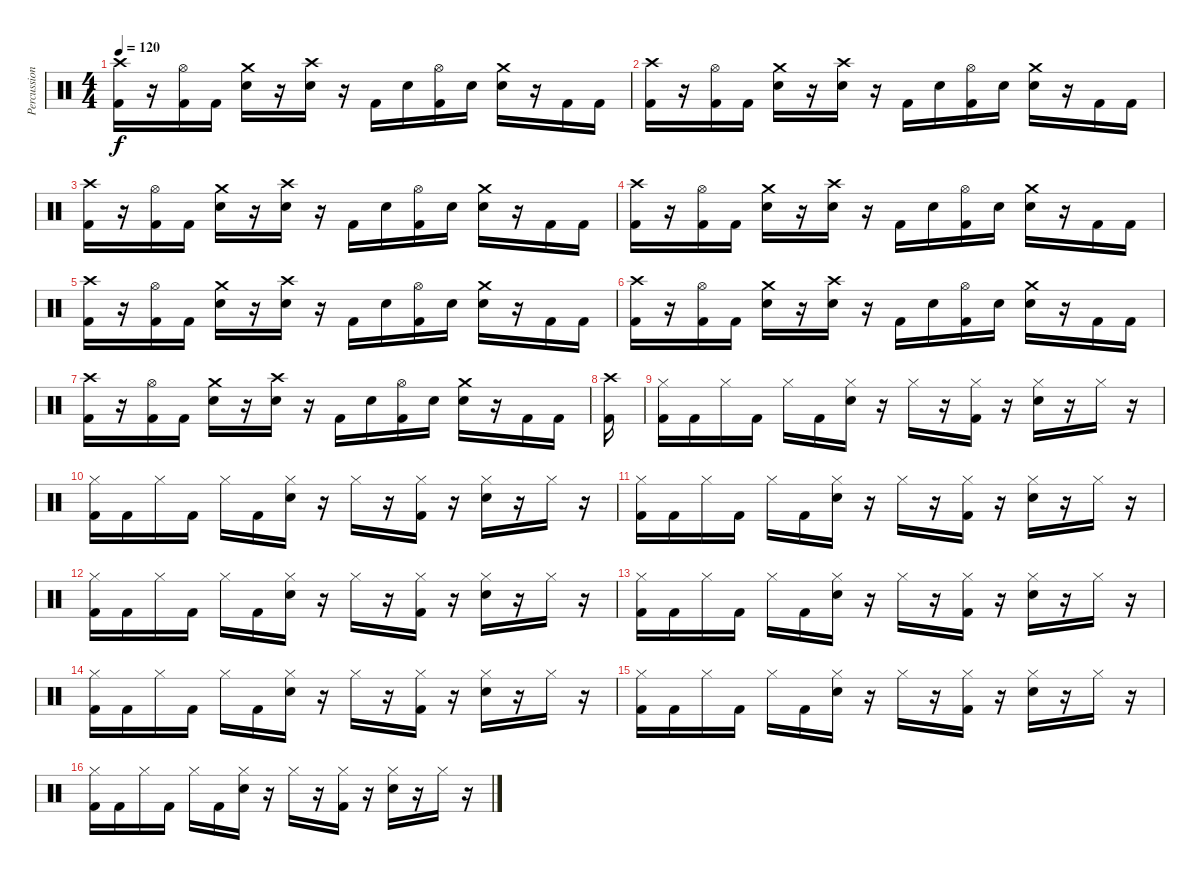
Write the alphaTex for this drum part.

\track ("Percussion" "Percussion") {instrument percussion}
\staff {score}
\articulation defaults
\ts (4 4)
\tempo 120
\clef neutral
\ks c
("Crash high (hit)" "Kick (hit) 2").16{dy f} r.16 ("Hi-Hat (open)" "Kick (hit) 2").16 "Kick (hit) 2".16 ("Crash medium (hit)" "Electric Snare (hit)").16 r.16 ("Crash high (hit)" "Electric Snare (hit)").16 r.16 "Kick (hit) 2".16 "Electric Snare (hit)".16 ("Hi-Hat (open)" "Kick (hit) 2").16 "Electric Snare (hit)".16 ("Crash medium (hit)" "Electric Snare (hit)").16 r.16 "Kick (hit) 2".16 "Kick (hit) 2".16 |
("Crash high (hit)" "Kick (hit) 2").16 r.16 ("Hi-Hat (open)" "Kick (hit) 2").16 "Kick (hit) 2".16 ("Crash medium (hit)" "Electric Snare (hit)").16 r.16 ("Crash high (hit)" "Electric Snare (hit)").16 r.16 "Kick (hit) 2".16 "Electric Snare (hit)".16 ("Hi-Hat (open)" "Kick (hit) 2").16 "Electric Snare (hit)".16 ("Crash medium (hit)" "Electric Snare (hit)").16 r.16 "Kick (hit) 2".16 "Kick (hit) 2".16 |
("Crash high (hit)" "Kick (hit) 2").16 r.16 ("Hi-Hat (open)" "Kick (hit) 2").16 "Kick (hit) 2".16 ("Crash medium (hit)" "Electric Snare (hit)").16 r.16 ("Crash high (hit)" "Electric Snare (hit)").16 r.16 "Kick (hit) 2".16 "Electric Snare (hit)".16 ("Hi-Hat (open)" "Kick (hit) 2").16 "Electric Snare (hit)".16 ("Crash medium (hit)" "Electric Snare (hit)").16 r.16 "Kick (hit) 2".16 "Kick (hit) 2".16 |
("Crash high (hit)" "Kick (hit) 2").16 r.16 ("Hi-Hat (open)" "Kick (hit) 2").16 "Kick (hit) 2".16 ("Crash medium (hit)" "Electric Snare (hit)").16 r.16 ("Crash high (hit)" "Electric Snare (hit)").16 r.16 "Kick (hit) 2".16 "Electric Snare (hit)".16 ("Hi-Hat (open)" "Kick (hit) 2").16 "Electric Snare (hit)".16 ("Crash medium (hit)" "Electric Snare (hit)").16 r.16 "Kick (hit) 2".16 "Kick (hit) 2".16 |
("Crash high (hit)" "Kick (hit) 2").16 r.16 ("Hi-Hat (open)" "Kick (hit) 2").16 "Kick (hit) 2".16 ("Crash medium (hit)" "Electric Snare (hit)").16 r.16 ("Crash high (hit)" "Electric Snare (hit)").16 r.16 "Kick (hit) 2".16 "Electric Snare (hit)".16 ("Hi-Hat (open)" "Kick (hit) 2").16 "Electric Snare (hit)".16 ("Crash medium (hit)" "Electric Snare (hit)").16 r.16 "Kick (hit) 2".16 "Kick (hit) 2".16 |
("Crash high (hit)" "Kick (hit) 2").16 r.16 ("Hi-Hat (open)" "Kick (hit) 2").16 "Kick (hit) 2".16 ("Crash medium (hit)" "Electric Snare (hit)").16 r.16 ("Crash high (hit)" "Electric Snare (hit)").16 r.16 "Kick (hit) 2".16 "Electric Snare (hit)".16 ("Hi-Hat (open)" "Kick (hit) 2").16 "Electric Snare (hit)".16 ("Crash medium (hit)" "Electric Snare (hit)").16 r.16 "Kick (hit) 2".16 "Kick (hit) 2".16 |
("Crash high (hit)" "Kick (hit) 2").16 r.16 ("Hi-Hat (open)" "Kick (hit) 2").16 "Kick (hit) 2".16 ("Crash medium (hit)" "Electric Snare (hit)").16 r.16 ("Crash high (hit)" "Electric Snare (hit)").16 r.16 "Kick (hit) 2".16 "Electric Snare (hit)".16 ("Hi-Hat (open)" "Kick (hit) 2").16 "Electric Snare (hit)".16 ("Crash medium (hit)" "Electric Snare (hit)").16 r.16 "Kick (hit) 2".16 "Kick (hit) 2".16 |
("Crash high (hit)" "Kick (hit) 2").16 |
("Hi-Hat (closed)" "Kick (hit) 2").16 "Kick (hit) 2".16 "Hi-Hat (closed)".16 "Kick (hit) 2".16 "Hi-Hat (closed)".16 "Kick (hit) 2".16 ("Hi-Hat (closed)" "Electric Snare (hit)").16 r.16 "Hi-Hat (closed)".16 r.16 ("Hi-Hat (closed)" "Kick (hit) 2").16 r.16 ("Hi-Hat (closed)" "Electric Snare (hit)").16 r.16 "Hi-Hat (closed)".16 r.16 |
("Hi-Hat (closed)" "Kick (hit) 2").16 "Kick (hit) 2".16 "Hi-Hat (closed)".16 "Kick (hit) 2".16 "Hi-Hat (closed)".16 "Kick (hit) 2".16 ("Hi-Hat (closed)" "Electric Snare (hit)").16 r.16 "Hi-Hat (closed)".16 r.16 ("Hi-Hat (closed)" "Kick (hit) 2").16 r.16 ("Hi-Hat (closed)" "Electric Snare (hit)").16 r.16 "Hi-Hat (closed)".16 r.16 |
("Hi-Hat (closed)" "Kick (hit) 2").16 "Kick (hit) 2".16 "Hi-Hat (closed)".16 "Kick (hit) 2".16 "Hi-Hat (closed)".16 "Kick (hit) 2".16 ("Hi-Hat (closed)" "Electric Snare (hit)").16 r.16 "Hi-Hat (closed)".16 r.16 ("Hi-Hat (closed)" "Kick (hit) 2").16 r.16 ("Hi-Hat (closed)" "Electric Snare (hit)").16 r.16 "Hi-Hat (closed)".16 r.16 |
("Hi-Hat (closed)" "Kick (hit) 2").16 "Kick (hit) 2".16 "Hi-Hat (closed)".16 "Kick (hit) 2".16 "Hi-Hat (closed)".16 "Kick (hit) 2".16 ("Hi-Hat (closed)" "Electric Snare (hit)").16 r.16 "Hi-Hat (closed)".16 r.16 ("Hi-Hat (closed)" "Kick (hit) 2").16 r.16 ("Hi-Hat (closed)" "Electric Snare (hit)").16 r.16 "Hi-Hat (closed)".16 r.16 |
("Hi-Hat (closed)" "Kick (hit) 2").16 "Kick (hit) 2".16 "Hi-Hat (closed)".16 "Kick (hit) 2".16 "Hi-Hat (closed)".16 "Kick (hit) 2".16 ("Hi-Hat (closed)" "Electric Snare (hit)").16 r.16 "Hi-Hat (closed)".16 r.16 ("Hi-Hat (closed)" "Kick (hit) 2").16 r.16 ("Hi-Hat (closed)" "Electric Snare (hit)").16 r.16 "Hi-Hat (closed)".16 r.16 |
("Hi-Hat (closed)" "Kick (hit) 2").16 "Kick (hit) 2".16 "Hi-Hat (closed)".16 "Kick (hit) 2".16 "Hi-Hat (closed)".16 "Kick (hit) 2".16 ("Hi-Hat (closed)" "Electric Snare (hit)").16 r.16 "Hi-Hat (closed)".16 r.16 ("Hi-Hat (closed)" "Kick (hit) 2").16 r.16 ("Hi-Hat (closed)" "Electric Snare (hit)").16 r.16 "Hi-Hat (closed)".16 r.16 |
("Hi-Hat (closed)" "Kick (hit) 2").16 "Kick (hit) 2".16 "Hi-Hat (closed)".16 "Kick (hit) 2".16 "Hi-Hat (closed)".16 "Kick (hit) 2".16 ("Hi-Hat (closed)" "Electric Snare (hit)").16 r.16 "Hi-Hat (closed)".16 r.16 ("Hi-Hat (closed)" "Kick (hit) 2").16 r.16 ("Hi-Hat (closed)" "Electric Snare (hit)").16 r.16 "Hi-Hat (closed)".16 r.16 |
("Hi-Hat (closed)" "Kick (hit) 2").16 "Kick (hit) 2".16 "Hi-Hat (closed)".16 "Kick (hit) 2".16 "Hi-Hat (closed)".16 "Kick (hit) 2".16 ("Hi-Hat (closed)" "Electric Snare (hit)").16 r.16 "Hi-Hat (closed)".16 r.16 ("Hi-Hat (closed)" "Kick (hit) 2").16 r.16 ("Hi-Hat (closed)" "Electric Snare (hit)").16 r.16 "Hi-Hat (closed)".16 r.16
